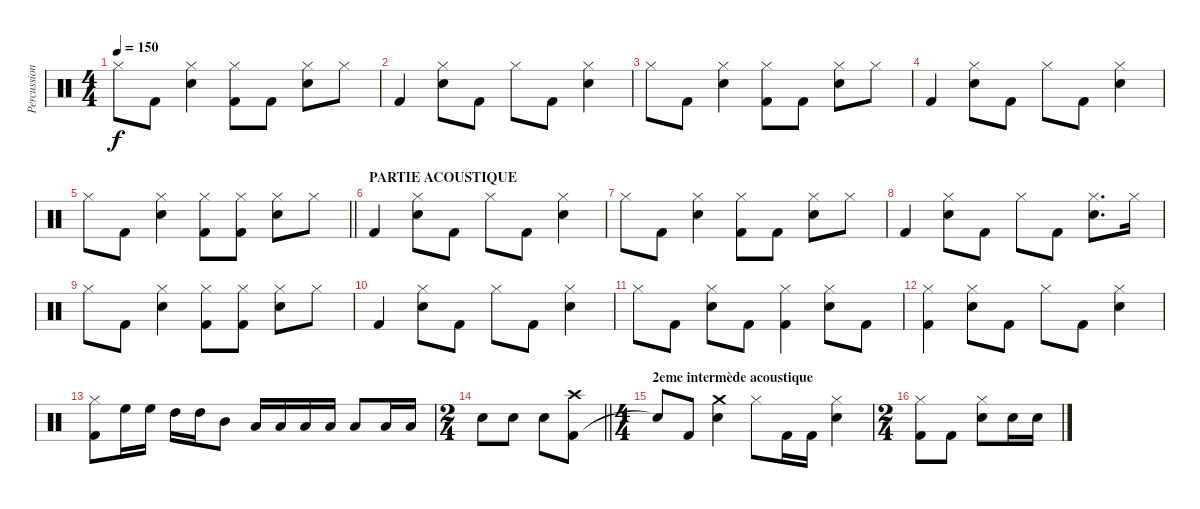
\track ("Percussion" "Percussion") {instrument percussion}
\staff {score}
\articulation defaults
\ts (4 4)
\tempo 150
\clef neutral
\ks c "Hi-Hat (closed)".8{dy f} "Kick (hit) 2".8
("Electric Snare (hit)" "Hi-Hat (closed)").4 ("Kick (hit) 2" "Hi-Hat (closed)").8 "Kick (hit) 2".8 ("Electric Snare (hit)" "Hi-Hat (closed)").8 "Hi-Hat (closed)".8 |
"Kick (hit) 2".4 ("Electric Snare (hit)" "Hi-Hat (closed)").8 "Kick (hit) 2".8 "Hi-Hat (closed)".8 "Kick (hit) 2".8 ("Electric Snare (hit)" "Hi-Hat (closed)").4 |
"Hi-Hat (closed)".8 "Kick (hit) 2".8 ("Electric Snare (hit)" "Hi-Hat (closed)").4 ("Kick (hit) 2" "Hi-Hat (closed)").8 "Kick (hit) 2".8 ("Electric Snare (hit)" "Hi-Hat (closed)").8 "Hi-Hat (closed)".8 |
"Kick (hit) 2".4 ("Electric Snare (hit)" "Hi-Hat (closed)").8 "Kick (hit) 2".8 "Hi-Hat (closed)".8 "Kick (hit) 2".8 ("Electric Snare (hit)" "Hi-Hat (closed)").4 |
\barLineRight lightlight "Hi-Hat (closed)".8 "Kick (hit) 2".8
("Electric Snare (hit)" "Hi-Hat (closed)").4 ("Kick (hit) 2" "Hi-Hat (closed)").8 ("Kick (hit) 2" "Hi-Hat (closed)").8 ("Electric Snare (hit)" "Hi-Hat (closed)").8 "Hi-Hat (closed)".8 |
\section ("" "PARTIE ACOUSTIQUE")
"Kick (hit) 2".4 ("Electric Snare (hit)" "Hi-Hat (closed)").8 "Kick (hit) 2".8 "Hi-Hat (closed)".8 "Kick (hit) 2".8 ("Electric Snare (hit)" "Hi-Hat (closed)").4 |
"Hi-Hat (closed)".8 "Kick (hit) 2".8 ("Electric Snare (hit)" "Hi-Hat (closed)").4 ("Kick (hit) 2" "Hi-Hat (closed)").8 "Kick (hit) 2".8 ("Electric Snare (hit)" "Hi-Hat (closed)").8 "Hi-Hat (closed)".8 |
"Kick (hit) 2".4 ("Electric Snare (hit)" "Hi-Hat (closed)").8 "Kick (hit) 2".8 "Hi-Hat (closed)".8 "Kick (hit) 2".8 ("Electric Snare (hit)" "Hi-Hat (closed)").8{d} "Hi-Hat (closed)".16 |
"Hi-Hat (closed)".8 "Kick (hit) 2".8 ("Electric Snare (hit)" "Hi-Hat (closed)").4 ("Kick (hit) 2" "Hi-Hat (closed)").8 ("Kick (hit) 2" "Hi-Hat (closed)").8 ("Electric Snare (hit)" "Hi-Hat (closed)").8 "Hi-Hat (closed)".8 |
"Kick (hit) 2".4 ("Electric Snare (hit)" "Hi-Hat (closed)").8 "Kick (hit) 2".8 "Hi-Hat (closed)".8 "Kick (hit) 2".8 ("Electric Snare (hit)" "Hi-Hat (closed)").4 |
"Hi-Hat (closed)".8 "Kick (hit) 2".8 ("Electric Snare (hit)" "Hi-Hat (closed)").8 "Kick (hit) 2".8 ("Kick (hit) 2" "Hi-Hat (closed)").4 ("Electric Snare (hit)" "Hi-Hat (closed)").8 "Kick (hit) 2".8 |
("Kick (hit) 2" "Hi-Hat (closed)").4 ("Electric Snare (hit)" "Hi-Hat (closed)").8 "Kick (hit) 2".8 "Hi-Hat (closed)".8 "Kick (hit) 2".8 ("Electric Snare (hit)" "Hi-Hat (closed)").4 |
("Kick (hit) 2" "Hi-Hat (closed)").8{volume 16} "High Floor Tom (hit)".16{volume 11} "High Floor Tom (hit)".16 "High Tom (hit)".16 "High Tom (hit)".16 "Mid Tom (hit)".8 "Low Tom (hit)".16 "Low Tom (hit)".16 "Low Tom (hit)".16 "Low Tom (hit)".16 "Low Tom (hit)".8 "Low Tom (hit)".16 "Low Tom (hit)".16 |
\ts (2 4)
\barLineRight lightlight "Electric Snare (hit)".8{volume 16} "Electric Snare (hit)".8 "Electric Snare (hit)".8
("Kick (hit) 2" "Crash high (hit)").8 |
\ts (4 4)
\section ("" "2eme intermède acoustique")
"Snare (hit)"{t}.8 "Kick (hit) 2".8 ("Electric Snare (hit)" "Crash medium (hit)").4 "Hi-Hat (closed)".8 "Kick (hit) 2".16 "Kick (hit) 2".16 ("Electric Snare (hit)" "Hi-Hat (closed)").4 |
\ts (2 4)
("Kick (hit) 2" "Hi-Hat (closed)").8 "Kick (hit) 2".8 ("Electric Snare (hit)" "Hi-Hat (closed)").8 "Electric Snare (hit)".16 "Electric Snare (hit)".16
